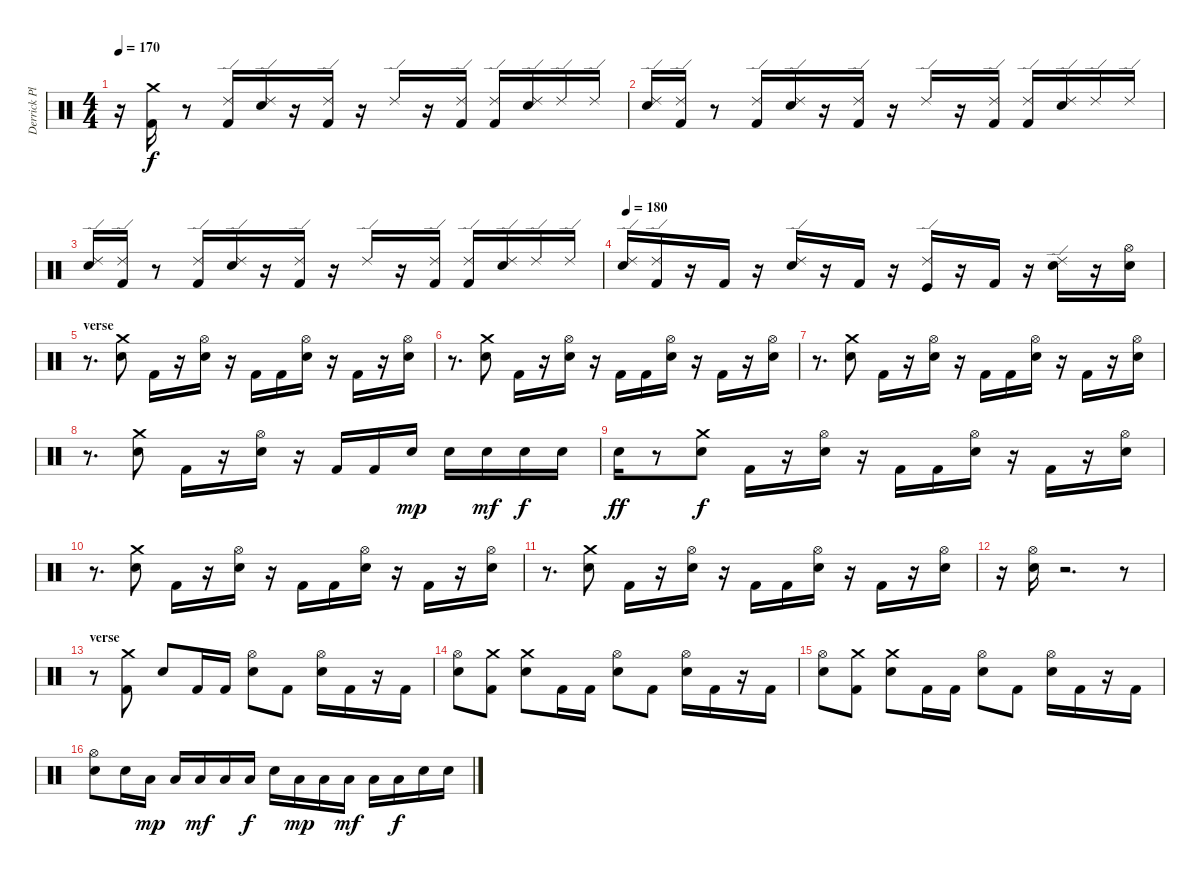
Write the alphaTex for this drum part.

\track ("Derrick Plourde" "Derrick Pl") {instrument percussion}
\staff {score}
\articulation defaults
\ts (4 4)
\tempo 170
\clef neutral
\ks c
r.16{dy f} ("Crash medium (hit)" "Kick (hit) 2").16 r.8 ("Kick (hit) 2" "Ride (edge) 2").16 ("Electric Snare (hit)" "Ride (edge) 2").16 r.16 ("Kick (hit) 2" "Ride (edge) 2").16 r.16 "Ride (edge) 2".16 r.16 ("Kick (hit) 2" "Ride (edge) 2").16 ("Kick (hit) 2" "Ride (edge) 2").16 ("Electric Snare (hit)" "Ride (edge) 2").16 "Ride (edge) 2".16 "Ride (edge) 2".16 |
("Electric Snare (hit)" "Ride (edge) 2").16 ("Ride (edge) 2" "Kick (hit) 2").16 r.8 ("Kick (hit) 2" "Ride (edge) 2").16 ("Electric Snare (hit)" "Ride (edge) 2").16 r.16 ("Kick (hit) 2" "Ride (edge) 2").16 r.16 "Ride (edge) 2".16 r.16 ("Kick (hit) 2" "Ride (edge) 2").16 ("Kick (hit) 2" "Ride (edge) 2").16 ("Electric Snare (hit)" "Ride (edge) 2").16 "Ride (edge) 2".16 "Ride (edge) 2".16 |
("Electric Snare (hit)" "Ride (edge) 2").16 ("Ride (edge) 2" "Kick (hit) 2").16 r.8 ("Kick (hit) 2" "Ride (edge) 2").16 ("Electric Snare (hit)" "Ride (edge) 2").16 r.16 ("Kick (hit) 2" "Ride (edge) 2").16 r.16 "Ride (edge) 2".16 r.16 ("Kick (hit) 2" "Ride (edge) 2").16 ("Kick (hit) 2" "Ride (edge) 2").16 ("Electric Snare (hit)" "Ride (edge) 2").16 "Ride (edge) 2".16 "Ride (edge) 2".16 |
\tempo 180
("Electric Snare (hit)" "Ride (edge) 2").16 ("Ride (edge) 2" "Kick (hit) 2").16 r.16 "Kick (hit) 2".16 r.16 ("Ride (edge) 2" "Electric Snare (hit)").16 r.16 "Kick (hit) 2".16 r.16 ("Ride (edge) 2" "Kick (hit)").16 r.16 "Kick (hit) 2".16 r.16 ("Ride (edge) 2" "Electric Snare (hit)").16 r.16 ("Hi-Hat (open)" "Electric Snare (hit)").16 |
\section ("" "verse")
r.8{d} ("Crash medium (hit)" "Electric Snare (hit)").8 "Kick (hit) 2".16 r.16 ("Hi-Hat (open)" "Electric Snare (hit)").16 r.16 "Kick (hit) 2".16 "Kick (hit) 2".16 ("Hi-Hat (open)" "Electric Snare (hit)").16 r.16 "Kick (hit) 2".16 r.16 ("Hi-Hat (open)" "Electric Snare (hit)").16 |
r.8{d} ("Crash medium (hit)" "Electric Snare (hit)").8 "Kick (hit) 2".16 r.16 ("Hi-Hat (open)" "Electric Snare (hit)").16 r.16 "Kick (hit) 2".16 "Kick (hit) 2".16 ("Hi-Hat (open)" "Electric Snare (hit)").16 r.16 "Kick (hit) 2".16 r.16 ("Hi-Hat (open)" "Electric Snare (hit)").16 |
r.8{d} ("Crash medium (hit)" "Electric Snare (hit)").8 "Kick (hit) 2".16 r.16 ("Hi-Hat (open)" "Electric Snare (hit)").16 r.16 "Kick (hit) 2".16 "Kick (hit) 2".16 ("Hi-Hat (open)" "Electric Snare (hit)").16 r.16 "Kick (hit) 2".16 r.16 ("Hi-Hat (open)" "Electric Snare (hit)").16 |
r.8{d} ("Crash medium (hit)" "Electric Snare (hit)").8 "Kick (hit) 2".16 r.16 ("Hi-Hat (open)" "Electric Snare (hit)").16 r.16 "Kick (hit) 2".16 "Kick (hit) 2".16 "Electric Snare (hit)".16{dy mp} "Electric Snare (hit)".16 "Electric Snare (hit)".16{dy mf} "Electric Snare (hit)".16{dy f} "Electric Snare (hit)".16 |
"Electric Snare (hit)".16{dy ff} r.8 ("Crash medium (hit)" "Electric Snare (hit)").8{dy f} "Kick (hit) 2".16 r.16 ("Hi-Hat (open)" "Electric Snare (hit)").16 r.16 "Kick (hit) 2".16 "Kick (hit) 2".16 ("Hi-Hat (open)" "Electric Snare (hit)").16 r.16 "Kick (hit) 2".16 r.16 ("Hi-Hat (open)" "Electric Snare (hit)").16 |
r.8{d} ("Crash medium (hit)" "Electric Snare (hit)").8 "Kick (hit) 2".16 r.16 ("Hi-Hat (open)" "Electric Snare (hit)").16 r.16 "Kick (hit) 2".16 "Kick (hit) 2".16 ("Hi-Hat (open)" "Electric Snare (hit)").16 r.16 "Kick (hit) 2".16 r.16 ("Hi-Hat (open)" "Electric Snare (hit)").16 |
r.8{d} ("Crash medium (hit)" "Electric Snare (hit)").8 "Kick (hit) 2".16 r.16 ("Hi-Hat (open)" "Electric Snare (hit)").16 r.16 "Kick (hit) 2".16 "Kick (hit) 2".16 ("Hi-Hat (open)" "Electric Snare (hit)").16 r.16 "Kick (hit) 2".16 r.16 ("Hi-Hat (open)" "Electric Snare (hit)").16 |
r.16 ("Hi-Hat (open)" "Electric Snare (hit)").16 r.2{d} r.8 |
\section ("" "verse")
r.8 ("Crash medium (hit)" "Kick (hit) 2").8 "Electric Snare (hit)".8 "Kick (hit) 2".16 "Kick (hit) 2".16 ("Hi-Hat (open)" "Electric Snare (hit)").8 "Kick (hit) 2".8 ("Hi-Hat (open)" "Electric Snare (hit)").16 "Kick (hit) 2".16 r.16 "Kick (hit) 2".16 |
("Hi-Hat (open)" "Electric Snare (hit)").8 ("Crash medium (hit)" "Kick (hit) 2").8 ("Crash medium (hit)" "Electric Snare (hit)").8 "Kick (hit) 2".16 "Kick (hit) 2".16 ("Hi-Hat (open)" "Electric Snare (hit)").8 "Kick (hit) 2".8 ("Hi-Hat (open)" "Electric Snare (hit)").16 "Kick (hit) 2".16 r.16 "Kick (hit) 2".16 |
("Hi-Hat (open)" "Electric Snare (hit)").8 ("Crash medium (hit)" "Kick (hit) 2").8 ("Crash medium (hit)" "Electric Snare (hit)").8 "Kick (hit) 2".16 "Kick (hit) 2".16 ("Hi-Hat (open)" "Electric Snare (hit)").8 "Kick (hit) 2".8 ("Hi-Hat (open)" "Electric Snare (hit)").16 "Kick (hit) 2".16 r.16 "Kick (hit) 2".16 |
("Hi-Hat (open)" "Electric Snare (hit)").8 "Electric Snare (hit)".16 "Low Tom (hit)".16{dy mp} "Low Tom (hit)".16 "Low Tom (hit)".16{dy mf} "Low Tom (hit)".16 "Low Tom (hit)".16{dy f} "Electric Snare (hit)".16 "Low Tom (hit)".16{dy mp} "Low Tom (hit)".16 "Low Tom (hit)".16{dy mf} "Low Tom (hit)".16 "Low Tom (hit)".16{dy f} "Electric Snare (hit)".16 "Electric Snare (hit)".16
